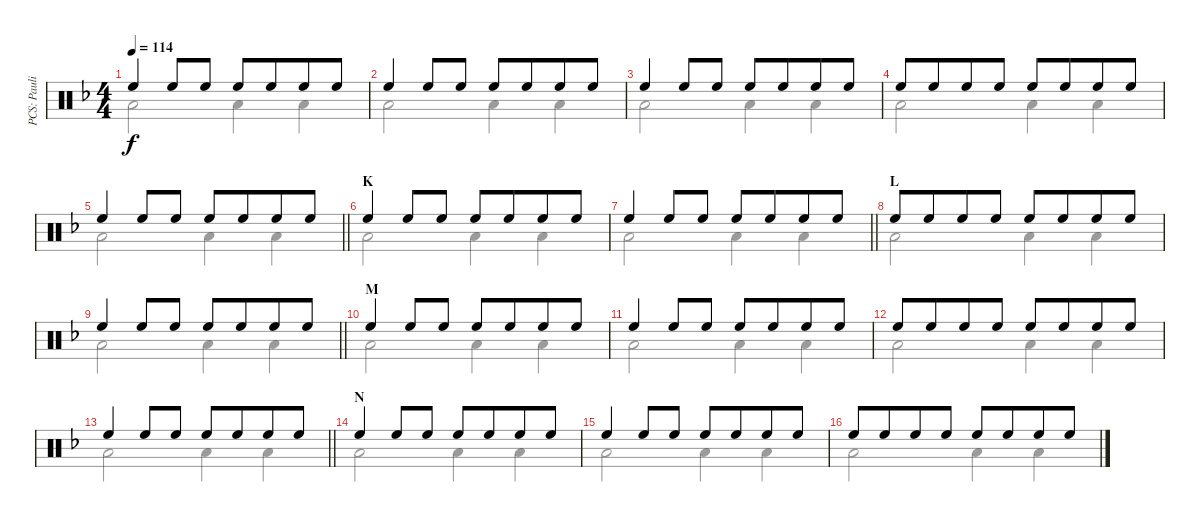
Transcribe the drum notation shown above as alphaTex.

\track ("PCS: Paulinho da Costa" "PCS: Pauli") {instrument percussion}
\staff {score}
\articulation defaults
\voice
\ts (4 4)
\tempo 114
\clef neutral
\ks f "High Floor Tom (hit)".4{dy f} "High Floor Tom (hit)".8 "High Floor Tom (hit)".8 "High Floor Tom (hit)".8 "High Floor Tom (hit)".8{beam merge} "High Floor Tom (hit)".8 "High Floor Tom (hit)".8
|
"High Floor Tom (hit)".4 "High Floor Tom (hit)".8 "High Floor Tom (hit)".8 "High Floor Tom (hit)".8 "High Floor Tom (hit)".8{beam merge} "High Floor Tom (hit)".8 "High Floor Tom (hit)".8 |
"High Floor Tom (hit)".4 "High Floor Tom (hit)".8 "High Floor Tom (hit)".8 "High Floor Tom (hit)".8 "High Floor Tom (hit)".8{beam merge} "High Floor Tom (hit)".8 "High Floor Tom (hit)".8 |
"High Floor Tom (hit)".8 "High Floor Tom (hit)".8{beam merge} "High Floor Tom (hit)".8 "High Floor Tom (hit)".8 "High Floor Tom (hit)".8{beam merge} "High Floor Tom (hit)".8{beam merge} "High Floor Tom (hit)".8 "High Floor Tom (hit)".8 |
\barLineRight lightlight "High Floor Tom (hit)".4 "High Floor Tom (hit)".8 "High Floor Tom (hit)".8 "High Floor Tom (hit)".8 "High Floor Tom (hit)".8{beam merge} "High Floor Tom (hit)".8 "High Floor Tom (hit)".8
|
\section ("" "K")
"High Floor Tom (hit)".4 "High Floor Tom (hit)".8 "High Floor Tom (hit)".8 "High Floor Tom (hit)".8 "High Floor Tom (hit)".8{beam merge} "High Floor Tom (hit)".8 "High Floor Tom (hit)".8 |
\barLineRight lightlight "High Floor Tom (hit)".4 "High Floor Tom (hit)".8 "High Floor Tom (hit)".8 "High Floor Tom (hit)".8 "High Floor Tom (hit)".8{beam merge} "High Floor Tom (hit)".8 "High Floor Tom (hit)".8
|
\section ("" "L")
"High Floor Tom (hit)".8 "High Floor Tom (hit)".8{beam merge} "High Floor Tom (hit)".8 "High Floor Tom (hit)".8 "High Floor Tom (hit)".8{beam merge} "High Floor Tom (hit)".8{beam merge} "High Floor Tom (hit)".8 "High Floor Tom (hit)".8 |
\barLineRight lightlight "High Floor Tom (hit)".4 "High Floor Tom (hit)".8 "High Floor Tom (hit)".8 "High Floor Tom (hit)".8 "High Floor Tom (hit)".8{beam merge} "High Floor Tom (hit)".8 "High Floor Tom (hit)".8
|
\section ("" "M")
"High Floor Tom (hit)".4 "High Floor Tom (hit)".8 "High Floor Tom (hit)".8 "High Floor Tom (hit)".8 "High Floor Tom (hit)".8{beam merge} "High Floor Tom (hit)".8 "High Floor Tom (hit)".8 |
"High Floor Tom (hit)".4 "High Floor Tom (hit)".8 "High Floor Tom (hit)".8 "High Floor Tom (hit)".8 "High Floor Tom (hit)".8{beam merge} "High Floor Tom (hit)".8 "High Floor Tom (hit)".8 |
"High Floor Tom (hit)".8 "High Floor Tom (hit)".8{beam merge} "High Floor Tom (hit)".8 "High Floor Tom (hit)".8 "High Floor Tom (hit)".8{beam merge} "High Floor Tom (hit)".8{beam merge} "High Floor Tom (hit)".8 "High Floor Tom (hit)".8 |
\barLineRight lightlight "High Floor Tom (hit)".4 "High Floor Tom (hit)".8 "High Floor Tom (hit)".8 "High Floor Tom (hit)".8 "High Floor Tom (hit)".8{beam merge} "High Floor Tom (hit)".8 "High Floor Tom (hit)".8
|
\section ("" "N")
"High Floor Tom (hit)".4 "High Floor Tom (hit)".8 "High Floor Tom (hit)".8 "High Floor Tom (hit)".8 "High Floor Tom (hit)".8{beam merge} "High Floor Tom (hit)".8 "High Floor Tom (hit)".8 |
"High Floor Tom (hit)".4 "High Floor Tom (hit)".8 "High Floor Tom (hit)".8 "High Floor Tom (hit)".8 "High Floor Tom (hit)".8{beam merge} "High Floor Tom (hit)".8 "High Floor Tom (hit)".8 |
"High Floor Tom (hit)".8 "High Floor Tom (hit)".8{beam merge} "High Floor Tom (hit)".8 "High Floor Tom (hit)".8 "High Floor Tom (hit)".8{beam merge} "High Floor Tom (hit)".8{beam merge} "High Floor Tom (hit)".8 "High Floor Tom (hit)".8
\voice
\clef neutral
\ottava regular
\simile none
\ks f "Low Floor Tom (hit)".2{dy f} "Low Floor Tom (hit)".4 "Low Floor Tom (hit)".4
|
"Low Floor Tom (hit)".2 "Low Floor Tom (hit)".4 "Low Floor Tom (hit)".4 |
"Low Floor Tom (hit)".2 "Low Floor Tom (hit)".4 "Low Floor Tom (hit)".4 |
"Low Floor Tom (hit)".2 "Low Floor Tom (hit)".4 "Low Floor Tom (hit)".4 |
\barLineRight lightlight "Low Floor Tom (hit)".2 "Low Floor Tom (hit)".4 "Low Floor Tom (hit)".4
|
"Low Floor Tom (hit)".2 "Low Floor Tom (hit)".4 "Low Floor Tom (hit)".4 |
\barLineRight lightlight "Low Floor Tom (hit)".2 "Low Floor Tom (hit)".4 "Low Floor Tom (hit)".4
|
"Low Floor Tom (hit)".2 "Low Floor Tom (hit)".4 "Low Floor Tom (hit)".4 |
\barLineRight lightlight "Low Floor Tom (hit)".2 "Low Floor Tom (hit)".4 "Low Floor Tom (hit)".4
|
"Low Floor Tom (hit)".2 "Low Floor Tom (hit)".4 "Low Floor Tom (hit)".4 |
"Low Floor Tom (hit)".2 "Low Floor Tom (hit)".4 "Low Floor Tom (hit)".4 |
"Low Floor Tom (hit)".2 "Low Floor Tom (hit)".4 "Low Floor Tom (hit)".4 |
\barLineRight lightlight "Low Floor Tom (hit)".2 "Low Floor Tom (hit)".4 "Low Floor Tom (hit)".4
|
"Low Floor Tom (hit)".2 "Low Floor Tom (hit)".4 "Low Floor Tom (hit)".4 |
"Low Floor Tom (hit)".2 "Low Floor Tom (hit)".4 "Low Floor Tom (hit)".4 |
"Low Floor Tom (hit)".2 "Low Floor Tom (hit)".4 "Low Floor Tom (hit)".4
